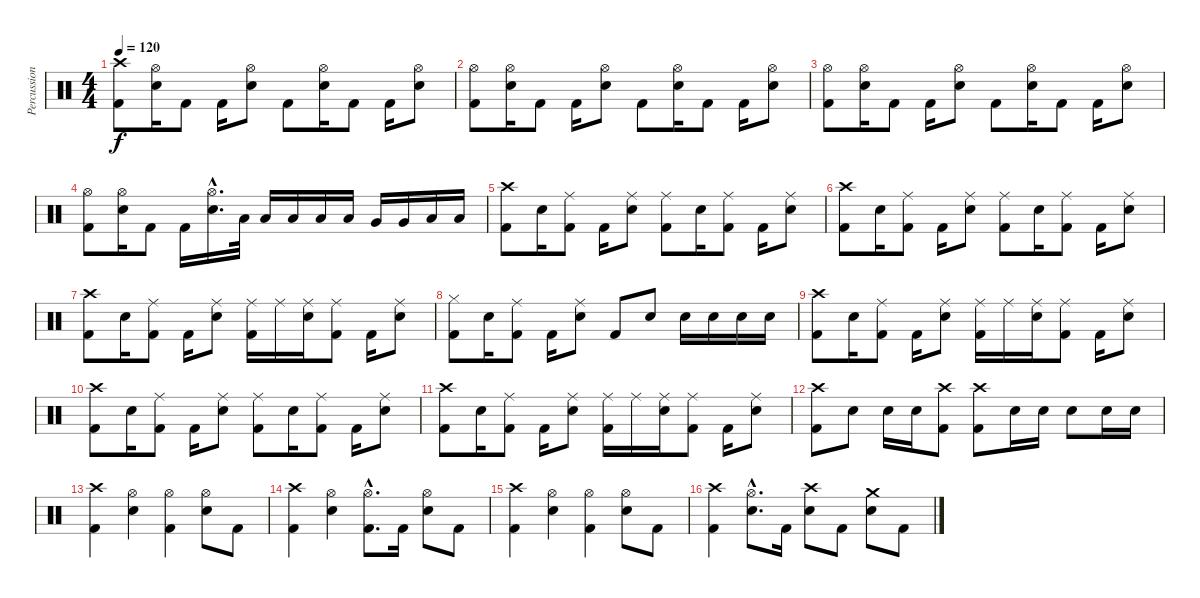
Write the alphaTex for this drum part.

\track ("Percussion" "Percussion") {instrument percussion}
\staff {score}
\articulation defaults
\ts (4 4)
\tempo 120
\clef neutral
\ks c
("Crash high (hit)" "Kick (hit) 2").8{dy f} ("Hi-Hat (open)" "Snare (hit) 2").16 "Kick (hit) 2".8 "Kick (hit) 2".16 ("Hi-Hat (open)" "Snare (hit) 2").8 "Kick (hit) 2".8 ("Hi-Hat (open)" "Snare (hit) 2").16 "Kick (hit) 2".8 "Kick (hit) 2".16 ("Hi-Hat (open)" "Snare (hit) 2").8 |
("Hi-Hat (open)" "Kick (hit) 2").8 ("Hi-Hat (open)" "Snare (hit) 2").16 "Kick (hit) 2".8 "Kick (hit) 2".16 ("Hi-Hat (open)" "Snare (hit) 2").8 "Kick (hit) 2".8 ("Hi-Hat (open)" "Snare (hit) 2").16 "Kick (hit) 2".8 "Kick (hit) 2".16 ("Hi-Hat (open)" "Snare (hit) 2").8 |
("Hi-Hat (open)" "Kick (hit) 2").8 ("Hi-Hat (open)" "Snare (hit) 2").16 "Kick (hit) 2".8 "Kick (hit) 2".16 ("Hi-Hat (open)" "Snare (hit) 2").8 "Kick (hit) 2".8 ("Hi-Hat (open)" "Snare (hit) 2").16 "Kick (hit) 2".8 "Kick (hit) 2".16 ("Hi-Hat (open)" "Snare (hit) 2").8 |
("Hi-Hat (open)" "Kick (hit) 2").8 ("Hi-Hat (open)" "Snare (hit) 2").16 "Kick (hit) 2".8 "Kick (hit) 2".16 ("Hi-Hat (open)"{hac} "Snare (hit) 2"{hac}).16{d} "Low Tom (hit)".32 "Low Tom (hit)".16 "Low Tom (hit)".16 "Low Tom (hit)".16 "Low Tom (hit)".16 "Very Low Tom (hit)".16 "Very Low Tom (hit)".16 "Low Floor Tom (hit)".16 "Low Floor Tom (hit)".16 |
("Crash high (hit)" "Kick (hit) 2").8 "Snare (hit) 2".16 ("Ride (middle)" "Kick (hit) 2").8 "Kick (hit) 2".16 ("Ride (middle)" "Snare (hit) 2").8 ("Ride (middle)" "Kick (hit) 2").8 "Snare (hit) 2".16 ("Ride (middle)" "Kick (hit) 2").8 "Kick (hit) 2".16 ("Ride (middle)" "Snare (hit) 2").8 |
("Crash high (hit)" "Kick (hit) 2").8 "Snare (hit) 2".16 ("Ride (middle)" "Kick (hit) 2").8 "Kick (hit) 2".16 ("Ride (middle)" "Snare (hit) 2").8 ("Ride (middle)" "Kick (hit) 2").8 "Snare (hit) 2".16 ("Ride (middle)" "Kick (hit) 2").8 "Kick (hit) 2".16 ("Ride (middle)" "Snare (hit) 2").8 |
("Crash high (hit)" "Kick (hit) 2").8 "Snare (hit) 2".16 ("Ride (middle)" "Kick (hit) 2").8 "Kick (hit) 2".16 ("Ride (middle)" "Snare (hit) 2").8 ("Ride (middle)" "Kick (hit) 2").16 "Ride (middle)".16 ("Ride (middle)" "Snare (hit) 2").16 ("Ride (middle)" "Kick (hit) 2").8 "Kick (hit) 2".16 ("Ride (middle)" "Snare (hit) 2").8 |
("Hi-Hat (closed)" "Kick (hit) 2").8 "Snare (hit) 2".16 ("Ride (middle)" "Kick (hit) 2").8 "Kick (hit) 2".16 ("Ride (middle)" "Snare (hit) 2").8 "Kick (hit) 2".8 "Snare (hit) 2".8 "Snare (hit) 2".16 "Snare (hit) 2".16 "Snare (hit) 2".16 "Snare (hit) 2".16 |
("Crash high (hit)" "Kick (hit) 2").8 "Snare (hit) 2".16 ("Ride (middle)" "Kick (hit) 2").8 "Kick (hit) 2".16 ("Ride (middle)" "Snare (hit) 2").8 ("Ride (middle)" "Kick (hit) 2").16 "Ride (middle)".16 ("Ride (middle)" "Snare (hit) 2").16 ("Ride (middle)" "Kick (hit) 2").8 "Kick (hit) 2".16 ("Ride (middle)" "Snare (hit) 2").8 |
("Crash high (hit)" "Kick (hit) 2").8 "Snare (hit) 2".16 ("Ride (middle)" "Kick (hit) 2").8 "Kick (hit) 2".16 ("Ride (middle)" "Snare (hit) 2").8 ("Ride (middle)" "Kick (hit) 2").8 "Snare (hit) 2".16 ("Ride (middle)" "Kick (hit) 2").8 "Kick (hit) 2".16 ("Ride (middle)" "Snare (hit) 2").8 |
("Crash high (hit)" "Kick (hit) 2").8 "Snare (hit) 2".16 ("Ride (middle)" "Kick (hit) 2").8 "Kick (hit) 2".16 ("Ride (middle)" "Snare (hit) 2").8 ("Ride (middle)" "Kick (hit) 2").16 "Ride (middle)".16 ("Ride (middle)" "Snare (hit) 2").16 ("Ride (middle)" "Kick (hit) 2").8 "Kick (hit) 2".16 ("Ride (middle)" "Snare (hit) 2").8 |
("Crash high (hit)" "Kick (hit) 2").8 "Snare (hit) 2".8 "Snare (hit) 2".16 "Snare (hit) 2".16 ("Crash high (hit)" "Kick (hit) 2").8 ("Crash high (hit)" "Kick (hit) 2").8 "Snare (hit) 2".16 "Snare (hit) 2".16 "Snare (hit) 2".8 "Snare (hit) 2".16 "Snare (hit) 2".16 |
("Crash high (hit)" "Kick (hit) 2").4 ("Hi-Hat (open)" "Snare (hit) 2").4 ("Hi-Hat (open)" "Kick (hit) 2").4 ("Hi-Hat (open)" "Snare (hit) 2").8 "Kick (hit) 2".8 |
("Crash high (hit)" "Kick (hit) 2").4 ("Hi-Hat (open)" "Snare (hit) 2").4 ("Hi-Hat (open)"{hac} "Kick (hit) 2"{hac}).8{d} "Kick (hit) 2".16 ("Hi-Hat (open)" "Snare (hit) 2").8 "Kick (hit) 2".8 |
("Crash high (hit)" "Kick (hit) 2").4 ("Hi-Hat (open)" "Snare (hit) 2").4 ("Hi-Hat (open)" "Kick (hit) 2").4 ("Hi-Hat (open)" "Snare (hit) 2").8 "Kick (hit) 2".8 |
("Crash high (hit)" "Kick (hit) 2").4 ("Hi-Hat (open)"{hac} "Snare (hit) 2"{hac}).8{d} "Kick (hit) 2".16 ("Crash high (hit)" "Snare (hit) 2").8 "Kick (hit) 2".8 ("Crash medium (hit)" "Snare (hit) 2").8 "Kick (hit) 2".8
